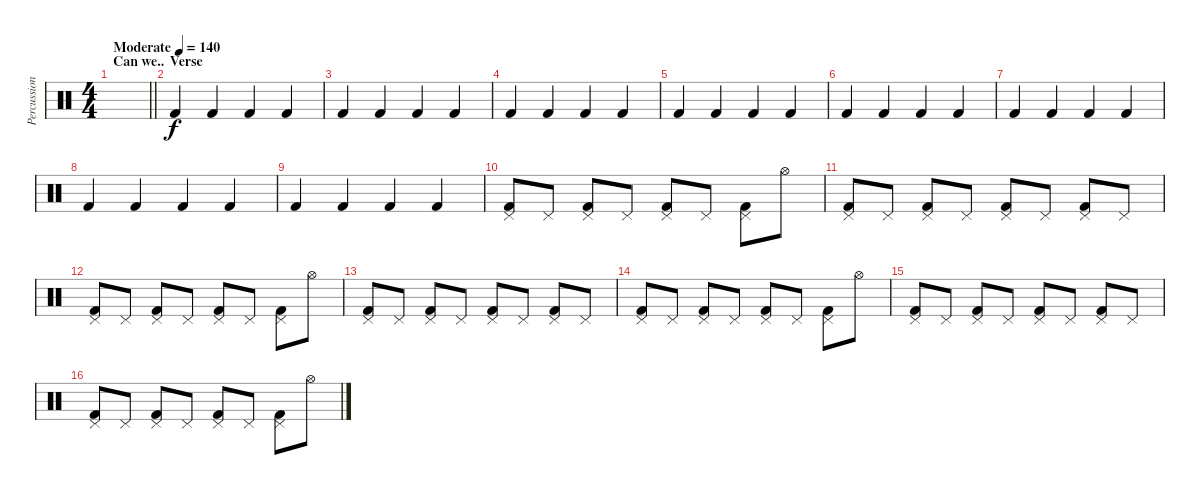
\track ("Percussion" "Percussion") {instrument percussion}
\staff {score}
\articulation defaults
\ts (4 4)
\section ("" "Can we..")
\tempo (140 "Moderate")
\clef neutral
\barLineRight lightlight
\ks c
|
\section ("" "Verse")
"Kick (hit) 2".4 "Kick (hit) 2".4 "Kick (hit) 2".4 "Kick (hit) 2".4 |
"Kick (hit) 2".4 "Kick (hit) 2".4 "Kick (hit) 2".4 "Kick (hit) 2".4 |
"Kick (hit) 2".4 "Kick (hit) 2".4 "Kick (hit) 2".4 "Kick (hit) 2".4 |
"Kick (hit) 2".4 "Kick (hit) 2".4 "Kick (hit) 2".4 "Kick (hit) 2".4 |
"Kick (hit) 2".4 "Kick (hit) 2".4 "Kick (hit) 2".4 "Kick (hit) 2".4 |
"Kick (hit) 2".4 "Kick (hit) 2".4 "Kick (hit) 2".4 "Kick (hit) 2".4 |
"Kick (hit) 2".4 "Kick (hit) 2".4 "Kick (hit) 2".4 "Kick (hit) 2".4 |
"Kick (hit) 2".4 "Kick (hit) 2".4 "Kick (hit) 2".4 "Kick (hit) 2".4 |
("Pedal Hi-Hat (hit)" "Kick (hit) 2").8 "Pedal Hi-Hat (hit)".8 ("Pedal Hi-Hat (hit)" "Kick (hit) 2").8 "Pedal Hi-Hat (hit)".8 ("Pedal Hi-Hat (hit)" "Kick (hit) 2").8 "Pedal Hi-Hat (hit)".8 ("Pedal Hi-Hat (hit)" "Kick (hit) 2").8 "Hi-Hat (open)".8 |
("Pedal Hi-Hat (hit)" "Kick (hit) 2").8 "Pedal Hi-Hat (hit)".8 ("Pedal Hi-Hat (hit)" "Kick (hit) 2").8 "Pedal Hi-Hat (hit)".8 ("Pedal Hi-Hat (hit)" "Kick (hit) 2").8 "Pedal Hi-Hat (hit)".8 ("Pedal Hi-Hat (hit)" "Kick (hit) 2").8 "Pedal Hi-Hat (hit)".8 |
("Pedal Hi-Hat (hit)" "Kick (hit) 2").8 "Pedal Hi-Hat (hit)".8 ("Pedal Hi-Hat (hit)" "Kick (hit) 2").8 "Pedal Hi-Hat (hit)".8 ("Pedal Hi-Hat (hit)" "Kick (hit) 2").8 "Pedal Hi-Hat (hit)".8 ("Pedal Hi-Hat (hit)" "Kick (hit) 2").8 "Hi-Hat (open)".8 |
("Pedal Hi-Hat (hit)" "Kick (hit) 2").8 "Pedal Hi-Hat (hit)".8 ("Pedal Hi-Hat (hit)" "Kick (hit) 2").8 "Pedal Hi-Hat (hit)".8 ("Pedal Hi-Hat (hit)" "Kick (hit) 2").8 "Pedal Hi-Hat (hit)".8 ("Pedal Hi-Hat (hit)" "Kick (hit) 2").8 "Pedal Hi-Hat (hit)".8 |
("Pedal Hi-Hat (hit)" "Kick (hit) 2").8 "Pedal Hi-Hat (hit)".8 ("Pedal Hi-Hat (hit)" "Kick (hit) 2").8 "Pedal Hi-Hat (hit)".8 ("Pedal Hi-Hat (hit)" "Kick (hit) 2").8 "Pedal Hi-Hat (hit)".8 ("Pedal Hi-Hat (hit)" "Kick (hit) 2").8 "Hi-Hat (open)".8 |
("Pedal Hi-Hat (hit)" "Kick (hit) 2").8 "Pedal Hi-Hat (hit)".8 ("Pedal Hi-Hat (hit)" "Kick (hit) 2").8 "Pedal Hi-Hat (hit)".8 ("Pedal Hi-Hat (hit)" "Kick (hit) 2").8 "Pedal Hi-Hat (hit)".8 ("Pedal Hi-Hat (hit)" "Kick (hit) 2").8 "Pedal Hi-Hat (hit)".8 |
("Pedal Hi-Hat (hit)" "Kick (hit) 2").8 "Pedal Hi-Hat (hit)".8 ("Pedal Hi-Hat (hit)" "Kick (hit) 2").8 "Pedal Hi-Hat (hit)".8 ("Pedal Hi-Hat (hit)" "Kick (hit) 2").8 "Pedal Hi-Hat (hit)".8 ("Pedal Hi-Hat (hit)" "Kick (hit) 2").8 "Hi-Hat (open)".8
